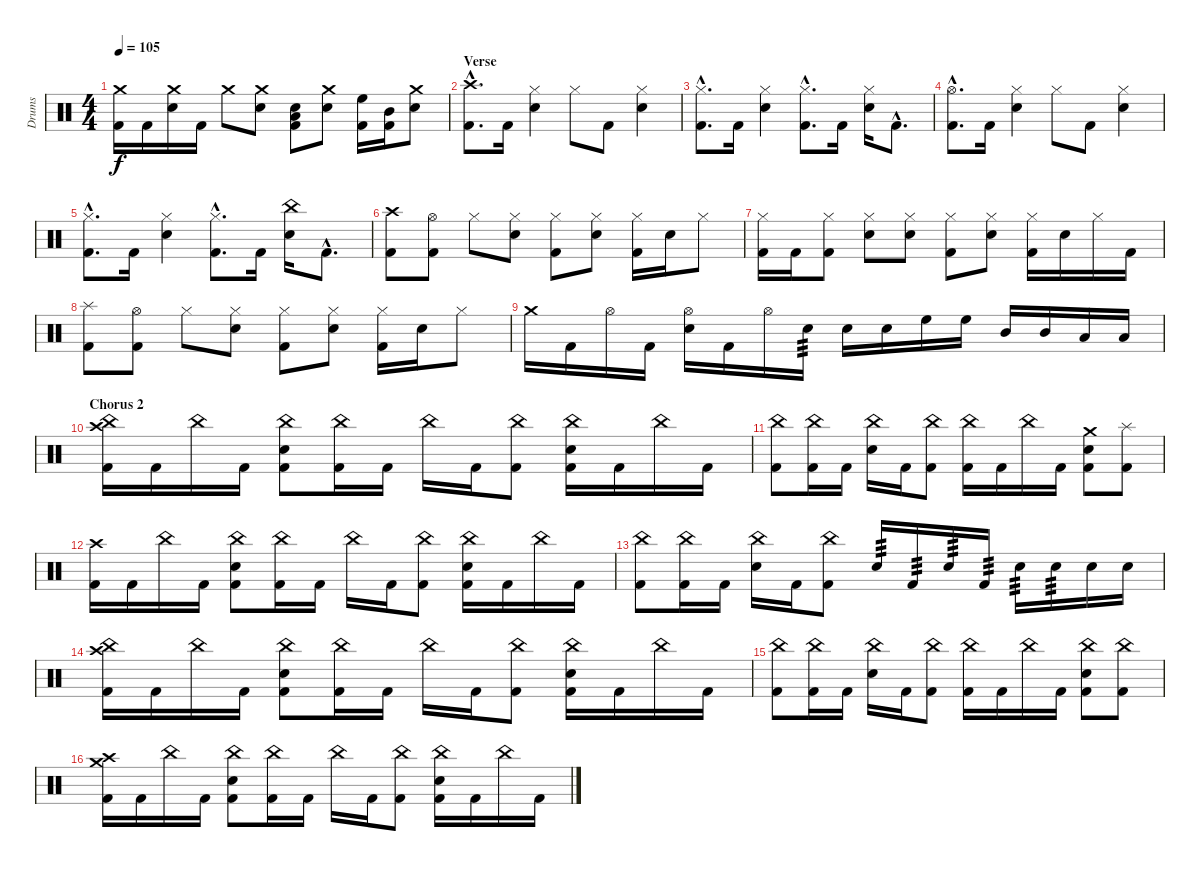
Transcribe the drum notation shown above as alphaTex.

\track ("Drums" "Drums") {instrument percussion}
\staff {score}
\articulation defaults
\ts (4 4)
\tempo 105
\clef neutral
\ks c
("Crash medium (hit)" "Kick (hit) 2").16{dy f} "Kick (hit) 2".16 ("Crash medium (hit)" "Snare (hit) 2").16 "Kick (hit) 2".16 "Crash medium (hit)".8 ("Crash medium (hit)" "Snare (hit) 2").8 ("Snare (hit) 2" "Low Floor Tom (hit)" "Kick (hit) 2").8 ("Crash medium (hit)" "Snare (hit) 2").8 ("High Floor Tom (hit)" "Kick (hit) 2").16 ("Mid Tom (hit)" "Kick (hit) 2").16 ("Crash medium (hit)" "Snare (hit) 2").8 |
\section ("" "Verse")
("Crash high (hit)"{hac} "Kick (hit) 2"{hac}).8{d} "Kick (hit) 2".16 ("Hi-Hat (closed)" "Snare (hit) 2").4 "Hi-Hat (closed)".8 "Kick (hit) 2".8 ("Hi-Hat (closed)" "Snare (hit) 2").4 |
("Hi-Hat (closed)"{hac} "Kick (hit) 2"{hac}).8{d} "Kick (hit) 2".16 ("Hi-Hat (closed)" "Snare (hit) 2").4 ("Hi-Hat (closed)"{hac} "Kick (hit) 2"{hac}).8{d} "Kick (hit) 2".16 ("Hi-Hat (closed)" "Snare (hit) 2").16 "Kick (hit) 2"{hac}.8{d} |
("Hi-Hat (open)"{hac} "Kick (hit) 2"{hac}).8{d} "Kick (hit) 2".16 ("Hi-Hat (closed)" "Snare (hit) 2").4 "Hi-Hat (closed)".8 "Kick (hit) 2".8 ("Hi-Hat (closed)" "Snare (hit) 2").4 |
("Hi-Hat (closed)"{hac} "Kick (hit) 2"{hac}).8{d} "Kick (hit) 2".16 ("Hi-Hat (closed)" "Snare (hit) 2").4 ("Hi-Hat (closed)"{hac} "Kick (hit) 2"{hac}).8{d} "Kick (hit) 2".16 ("China (hit)" "Snare (hit) 2").16 "Kick (hit) 2"{hac}.8{d} |
("Crash high (hit)" "Kick (hit) 2").8 ("Hi-Hat (open)" "Kick (hit) 2").8 "Hi-Hat (closed)".8 ("Hi-Hat (closed)" "Snare (hit) 2").8 ("Hi-Hat (closed)" "Kick (hit) 2").8 ("Hi-Hat (closed)" "Snare (hit) 2").8 ("Hi-Hat (closed)" "Kick (hit) 2").16 "Snare (hit) 2".16 "Hi-Hat (closed)".8 |
("Hi-Hat (closed)" "Kick (hit) 2").16 "Kick (hit) 2".16 ("Hi-Hat (closed)" "Kick (hit) 2").8 ("Hi-Hat (closed)" "Snare (hit) 2").8 ("Hi-Hat (closed)" "Snare (hit) 2").8 ("Hi-Hat (closed)" "Kick (hit) 2").8 ("Hi-Hat (closed)" "Snare (hit) 2").8 ("Hi-Hat (closed)" "Kick (hit) 2").16 "Snare (hit) 2".16 "Hi-Hat (closed)".16 "Kick (hit) 2".16 |
("Splash (hit)" "Kick (hit) 2").8 ("Hi-Hat (open)" "Kick (hit) 2").8 "Hi-Hat (closed)".8 ("Hi-Hat (closed)" "Snare (hit) 2").8 ("Hi-Hat (closed)" "Kick (hit) 2").8 ("Hi-Hat (closed)" "Snare (hit) 2").8 ("Hi-Hat (closed)" "Kick (hit) 2").16 "Snare (hit) 2".16 "Hi-Hat (closed)".8 |
"Crash medium (hit)".16 "Kick (hit) 2".16 "Hi-Hat (open)".16 "Kick (hit) 2".16 ("Hi-Hat (open)" "Snare (hit) 2").16 "Kick (hit) 2".16 "Hi-Hat (open)".16 "Snare (hit) 2".16{tp 3} "Snare (hit) 2".16 "Snare (hit) 2".16 "High Floor Tom (hit)".16 "High Floor Tom (hit)".16 "Mid Tom (hit)".16 "Mid Tom (hit)".16 "Low Floor Tom (hit)".16 "Low Floor Tom (hit)".16 |
\section ("" "Chorus 2")
("China (hit)" "Crash high (hit)" "Kick (hit) 2").16 "Kick (hit) 2".16 "China (hit)".16 "Kick (hit) 2".16 ("China (hit)" "Snare (hit) 2" "Kick (hit) 2").8 ("China (hit)" "Kick (hit) 2").16 "Kick (hit) 2".16 "China (hit)".16 "Kick (hit) 2".16 ("China (hit)" "Kick (hit) 2").8 ("China (hit)" "Snare (hit) 2" "Kick (hit) 2").16 "Kick (hit) 2".16 "China (hit)".16 "Kick (hit) 2".16 |
("China (hit)" "Kick (hit) 2").8 ("China (hit)" "Kick (hit) 2").16 "Kick (hit) 2".16 ("China (hit)" "Snare (hit) 2").16 "Kick (hit) 2".16 ("China (hit)" "Kick (hit) 2").8 ("China (hit)" "Kick (hit) 2").16 "Kick (hit) 2".16 "China (hit)".16 "Kick (hit) 2".16 ("Crash medium (hit)" "Snare (hit) 2" "Kick (hit) 2").8 ("Splash (hit)" "Kick (hit) 2").8 |
("Crash high (hit)" "Kick (hit) 2").16 "Kick (hit) 2".16 "China (hit)".16 "Kick (hit) 2".16 ("China (hit)" "Snare (hit) 2" "Kick (hit) 2").8 ("China (hit)" "Kick (hit) 2").16 "Kick (hit) 2".16 "China (hit)".16 "Kick (hit) 2".16 ("China (hit)" "Kick (hit) 2").8 ("China (hit)" "Snare (hit) 2" "Kick (hit) 2").16 "Kick (hit) 2".16 "China (hit)".16 "Kick (hit) 2".16 |
("China (hit)" "Kick (hit) 2").8 ("China (hit)" "Kick (hit) 2").16 "Kick (hit) 2".16 ("China (hit)" "Snare (hit) 2").16 "Kick (hit) 2".16 ("China (hit)" "Kick (hit) 2").8 "Snare (hit) 2".16{tp 3} "Kick (hit) 2".16{tp 3} "Snare (hit) 2".16{tp 3} "Kick (hit) 2".16{tp 3} "Snare (hit) 2".16{tp 3} "Snare (hit) 2".16{tp 3} "Snare (hit) 2".16 "Snare (hit) 2".16 |
("China (hit)" "Crash high (hit)" "Kick (hit) 2").16 "Kick (hit) 2".16 "China (hit)".16 "Kick (hit) 2".16 ("China (hit)" "Snare (hit) 2" "Kick (hit) 2").8 ("China (hit)" "Kick (hit) 2").16 "Kick (hit) 2".16 "China (hit)".16 "Kick (hit) 2".16 ("China (hit)" "Kick (hit) 2").8 ("China (hit)" "Snare (hit) 2" "Kick (hit) 2").16 "Kick (hit) 2".16 "China (hit)".16 "Kick (hit) 2".16 |
("China (hit)" "Kick (hit) 2").8 ("China (hit)" "Kick (hit) 2").16 "Kick (hit) 2".16 ("China (hit)" "Snare (hit) 2").16 "Kick (hit) 2".16 ("China (hit)" "Kick (hit) 2").8 ("China (hit)" "Kick (hit) 2").16 "Kick (hit) 2".16 "China (hit)".16 "Kick (hit) 2".16 ("China (hit)" "Snare (hit) 2" "Kick (hit) 2").8 ("China (hit)" "Kick (hit) 2").8 |
("Crash high (hit)" "Crash medium (hit)" "Kick (hit) 2").16 "Kick (hit) 2".16 "China (hit)".16 "Kick (hit) 2".16 ("China (hit)" "Snare (hit) 2" "Kick (hit) 2").8 ("China (hit)" "Kick (hit) 2").16 "Kick (hit) 2".16 "China (hit)".16 "Kick (hit) 2".16 ("China (hit)" "Kick (hit) 2").8 ("China (hit)" "Snare (hit) 2" "Kick (hit) 2").16 "Kick (hit) 2".16 "China (hit)".16 "Kick (hit) 2".16
